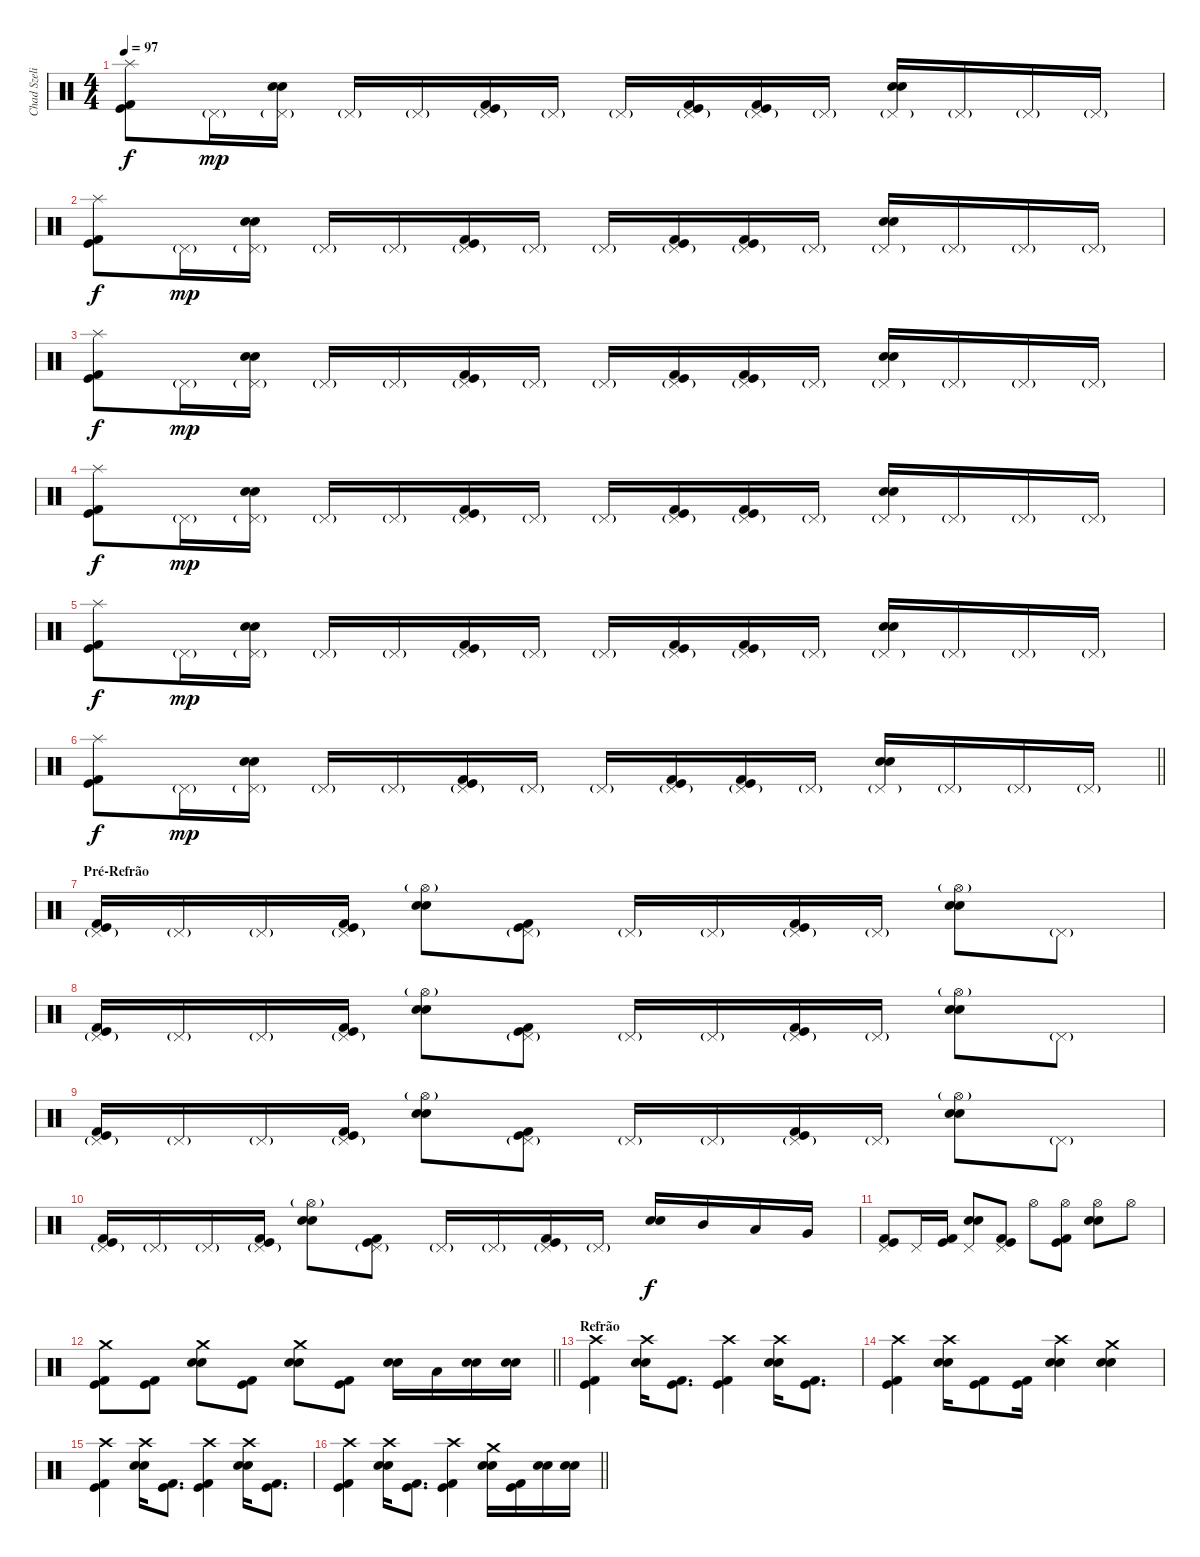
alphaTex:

\track ("Chad Szeliga" "Chad Szeli") {instrument percussion}
\staff {score}
\articulation defaults
\ts (4 4)
\tempo 97
\clef neutral
\ks c
("Splash (hit)" "Kick (hit) 2" "Kick (hit)").8{dy f} "Pedal Hi-Hat (hit)"{g}.16{dy mp} ("Snare (hit) 2" "Snare (hit) 2" "Pedal Hi-Hat (hit)"{g}).16 "Pedal Hi-Hat (hit)"{g}.16 "Pedal Hi-Hat (hit)"{g}.16 ("Kick (hit) 2" "Kick (hit)" "Pedal Hi-Hat (hit)"{g}).16 "Pedal Hi-Hat (hit)"{g}.16 "Pedal Hi-Hat (hit)"{g}.16 ("Kick (hit) 2" "Kick (hit)" "Pedal Hi-Hat (hit)"{g}).16 ("Kick (hit) 2" "Kick (hit)" "Pedal Hi-Hat (hit)"{g}).16 "Pedal Hi-Hat (hit)"{g}.16 ("Snare (hit) 2" "Snare (hit) 2" "Pedal Hi-Hat (hit)"{g}).16 "Pedal Hi-Hat (hit)"{g}.16 "Pedal Hi-Hat (hit)"{g}.16 "Pedal Hi-Hat (hit)"{g}.16 |
("Splash (hit)" "Kick (hit) 2" "Kick (hit)").8{dy f} "Pedal Hi-Hat (hit)"{g}.16{dy mp} ("Snare (hit) 2" "Snare (hit) 2" "Pedal Hi-Hat (hit)"{g}).16 "Pedal Hi-Hat (hit)"{g}.16 "Pedal Hi-Hat (hit)"{g}.16 ("Kick (hit) 2" "Kick (hit)" "Pedal Hi-Hat (hit)"{g}).16 "Pedal Hi-Hat (hit)"{g}.16 "Pedal Hi-Hat (hit)"{g}.16 ("Kick (hit) 2" "Kick (hit)" "Pedal Hi-Hat (hit)"{g}).16 ("Kick (hit) 2" "Kick (hit)" "Pedal Hi-Hat (hit)"{g}).16 "Pedal Hi-Hat (hit)"{g}.16 ("Snare (hit) 2" "Snare (hit) 2" "Pedal Hi-Hat (hit)"{g}).16 "Pedal Hi-Hat (hit)"{g}.16 "Pedal Hi-Hat (hit)"{g}.16 "Pedal Hi-Hat (hit)"{g}.16 |
("Splash (hit)" "Kick (hit) 2" "Kick (hit)").8{dy f} "Pedal Hi-Hat (hit)"{g}.16{dy mp} ("Snare (hit) 2" "Snare (hit) 2" "Pedal Hi-Hat (hit)"{g}).16 "Pedal Hi-Hat (hit)"{g}.16 "Pedal Hi-Hat (hit)"{g}.16 ("Kick (hit) 2" "Kick (hit)" "Pedal Hi-Hat (hit)"{g}).16 "Pedal Hi-Hat (hit)"{g}.16 "Pedal Hi-Hat (hit)"{g}.16 ("Kick (hit) 2" "Kick (hit)" "Pedal Hi-Hat (hit)"{g}).16 ("Kick (hit) 2" "Kick (hit)" "Pedal Hi-Hat (hit)"{g}).16 "Pedal Hi-Hat (hit)"{g}.16 ("Snare (hit) 2" "Snare (hit) 2" "Pedal Hi-Hat (hit)"{g}).16 "Pedal Hi-Hat (hit)"{g}.16 "Pedal Hi-Hat (hit)"{g}.16 "Pedal Hi-Hat (hit)"{g}.16 |
("Splash (hit)" "Kick (hit) 2" "Kick (hit)").8{dy f} "Pedal Hi-Hat (hit)"{g}.16{dy mp} ("Snare (hit) 2" "Snare (hit) 2" "Pedal Hi-Hat (hit)"{g}).16 "Pedal Hi-Hat (hit)"{g}.16 "Pedal Hi-Hat (hit)"{g}.16 ("Kick (hit) 2" "Kick (hit)" "Pedal Hi-Hat (hit)"{g}).16 "Pedal Hi-Hat (hit)"{g}.16 "Pedal Hi-Hat (hit)"{g}.16 ("Kick (hit) 2" "Kick (hit)" "Pedal Hi-Hat (hit)"{g}).16 ("Kick (hit) 2" "Kick (hit)" "Pedal Hi-Hat (hit)"{g}).16 "Pedal Hi-Hat (hit)"{g}.16 ("Snare (hit) 2" "Snare (hit) 2" "Pedal Hi-Hat (hit)"{g}).16 "Pedal Hi-Hat (hit)"{g}.16 "Pedal Hi-Hat (hit)"{g}.16 "Pedal Hi-Hat (hit)"{g}.16 |
("Splash (hit)" "Kick (hit) 2" "Kick (hit)").8{dy f} "Pedal Hi-Hat (hit)"{g}.16{dy mp} ("Snare (hit) 2" "Snare (hit) 2" "Pedal Hi-Hat (hit)"{g}).16 "Pedal Hi-Hat (hit)"{g}.16 "Pedal Hi-Hat (hit)"{g}.16 ("Kick (hit) 2" "Kick (hit)" "Pedal Hi-Hat (hit)"{g}).16 "Pedal Hi-Hat (hit)"{g}.16 "Pedal Hi-Hat (hit)"{g}.16 ("Kick (hit) 2" "Kick (hit)" "Pedal Hi-Hat (hit)"{g}).16 ("Kick (hit) 2" "Kick (hit)" "Pedal Hi-Hat (hit)"{g}).16 "Pedal Hi-Hat (hit)"{g}.16 ("Snare (hit) 2" "Snare (hit) 2" "Pedal Hi-Hat (hit)"{g}).16 "Pedal Hi-Hat (hit)"{g}.16 "Pedal Hi-Hat (hit)"{g}.16 "Pedal Hi-Hat (hit)"{g}.16 |
\barLineRight lightlight
("Splash (hit)" "Kick (hit) 2" "Kick (hit)").8{dy f} "Pedal Hi-Hat (hit)"{g}.16{dy mp} ("Snare (hit) 2" "Snare (hit) 2" "Pedal Hi-Hat (hit)"{g}).16 "Pedal Hi-Hat (hit)"{g}.16 "Pedal Hi-Hat (hit)"{g}.16 ("Kick (hit) 2" "Kick (hit)" "Pedal Hi-Hat (hit)"{g}).16 "Pedal Hi-Hat (hit)"{g}.16 "Pedal Hi-Hat (hit)"{g}.16 ("Kick (hit) 2" "Kick (hit)" "Pedal Hi-Hat (hit)"{g}).16 ("Kick (hit) 2" "Kick (hit)" "Pedal Hi-Hat (hit)"{g}).16 "Pedal Hi-Hat (hit)"{g}.16 ("Snare (hit) 2" "Snare (hit) 2" "Pedal Hi-Hat (hit)"{g}).16 "Pedal Hi-Hat (hit)"{g}.16 "Pedal Hi-Hat (hit)"{g}.16 "Pedal Hi-Hat (hit)"{g}.16 |
\section ("" "Pré-Refrão")
("Kick (hit) 2" "Kick (hit)" "Pedal Hi-Hat (hit)"{g}).16 "Pedal Hi-Hat (hit)"{g}.16 "Pedal Hi-Hat (hit)"{g}.16 ("Kick (hit) 2" "Kick (hit)" "Pedal Hi-Hat (hit)"{g}).16 ("Snare (hit) 2" "Snare (hit) 2" "Hi-Hat (open)"{g}).8 ("Kick (hit) 2" "Kick (hit)" "Pedal Hi-Hat (hit)"{g}).8 "Pedal Hi-Hat (hit)"{g}.16 "Pedal Hi-Hat (hit)"{g}.16 ("Kick (hit) 2" "Kick (hit)" "Pedal Hi-Hat (hit)"{g}).16 "Pedal Hi-Hat (hit)"{g}.16 ("Snare (hit) 2" "Snare (hit) 2" "Hi-Hat (open)"{g}).8 "Pedal Hi-Hat (hit)"{g}.8 |
("Kick (hit) 2" "Kick (hit)" "Pedal Hi-Hat (hit)"{g}).16 "Pedal Hi-Hat (hit)"{g}.16 "Pedal Hi-Hat (hit)"{g}.16 ("Kick (hit) 2" "Kick (hit)" "Pedal Hi-Hat (hit)"{g}).16 ("Snare (hit) 2" "Snare (hit) 2" "Hi-Hat (open)"{g}).8 ("Kick (hit) 2" "Kick (hit)" "Pedal Hi-Hat (hit)"{g}).8 "Pedal Hi-Hat (hit)"{g}.16 "Pedal Hi-Hat (hit)"{g}.16 ("Kick (hit) 2" "Kick (hit)" "Pedal Hi-Hat (hit)"{g}).16 "Pedal Hi-Hat (hit)"{g}.16 ("Snare (hit) 2" "Snare (hit) 2" "Hi-Hat (open)"{g}).8 "Pedal Hi-Hat (hit)"{g}.8 |
("Kick (hit) 2" "Kick (hit)" "Pedal Hi-Hat (hit)"{g}).16 "Pedal Hi-Hat (hit)"{g}.16 "Pedal Hi-Hat (hit)"{g}.16 ("Kick (hit) 2" "Kick (hit)" "Pedal Hi-Hat (hit)"{g}).16 ("Snare (hit) 2" "Snare (hit) 2" "Hi-Hat (open)"{g}).8 ("Kick (hit) 2" "Kick (hit)" "Pedal Hi-Hat (hit)"{g}).8 "Pedal Hi-Hat (hit)"{g}.16 "Pedal Hi-Hat (hit)"{g}.16 ("Kick (hit) 2" "Kick (hit)" "Pedal Hi-Hat (hit)"{g}).16 "Pedal Hi-Hat (hit)"{g}.16 ("Snare (hit) 2" "Snare (hit) 2" "Hi-Hat (open)"{g}).8 "Pedal Hi-Hat (hit)"{g}.8 |
("Kick (hit) 2" "Kick (hit)" "Pedal Hi-Hat (hit)"{g}).16 "Pedal Hi-Hat (hit)"{g}.16 "Pedal Hi-Hat (hit)"{g}.16 ("Kick (hit) 2" "Kick (hit)" "Pedal Hi-Hat (hit)"{g}).16 ("Snare (hit) 2" "Snare (hit) 2" "Hi-Hat (open)"{g}).8 ("Kick (hit) 2" "Kick (hit)" "Pedal Hi-Hat (hit)"{g}).8 "Pedal Hi-Hat (hit)"{g}.16 "Pedal Hi-Hat (hit)"{g}.16 ("Kick (hit) 2" "Kick (hit)" "Pedal Hi-Hat (hit)"{g}).16 "Pedal Hi-Hat (hit)"{g}.16 ("Snare (hit) 2" "Snare (hit) 2").16{dy f} "Mid Tom (hit)".16 "Low Tom (hit)".16 "Very Low Tom (hit)".16 |
("Kick (hit) 2" "Kick (hit)" "Pedal Hi-Hat (hit)").8 "Pedal Hi-Hat (hit)".16 ("Kick (hit) 2" "Kick (hit)").16 ("Snare (hit) 2" "Snare (hit) 2" "Pedal Hi-Hat (hit)").8 ("Kick (hit) 2" "Kick (hit)" "Pedal Hi-Hat (hit)").8 "Hi-Hat (open)".8 ("Kick (hit) 2" "Kick (hit)" "Hi-Hat (open)").8 ("Snare (hit) 2" "Snare (hit) 2" "Hi-Hat (open)").8 "Hi-Hat (open)".8 |
\barLineRight lightlight
("Crash medium (hit)" "Kick (hit) 2" "Kick (hit)").8 ("Kick (hit) 2" "Kick (hit)").8 ("Crash medium (hit)" "Snare (hit) 2" "Snare (hit) 2").8 ("Kick (hit) 2" "Kick (hit)").8 ("Crash medium (hit)" "Snare (hit) 2" "Snare (hit) 2").8 ("Kick (hit) 2" "Kick (hit)").8 ("Snare (hit) 2" "Snare (hit) 2").16 "Low Tom (hit)".16 ("Snare (hit) 2" "Snare (hit) 2").16 ("Snare (hit) 2" "Snare (hit) 2").16 |
\section ("" "Refrão")
("Crash high (hit)" "Kick (hit) 2" "Kick (hit)").4 ("Crash high (hit)" "Snare (hit) 2" "Snare (hit) 2").16 ("Kick (hit) 2" "Kick (hit)").8{d} ("Crash high (hit)" "Kick (hit) 2" "Kick (hit)").4 ("Crash high (hit)" "Snare (hit) 2" "Snare (hit) 2").16 ("Kick (hit) 2" "Kick (hit)").8{d} |
("Crash high (hit)" "Kick (hit) 2" "Kick (hit)").4 ("Crash high (hit)" "Snare (hit) 2" "Snare (hit) 2").16 ("Kick (hit) 2" "Kick (hit)").8 ("Kick (hit) 2" "Kick (hit)").16 ("Crash high (hit)" "Snare (hit) 2" "Snare (hit) 2").4 ("Crash medium (hit)" "Snare (hit) 2" "Snare (hit) 2").4 |
("Crash high (hit)" "Kick (hit) 2" "Kick (hit)").4 ("Crash high (hit)" "Snare (hit) 2" "Snare (hit) 2").16 ("Kick (hit) 2" "Kick (hit)").8{d} ("Crash high (hit)" "Kick (hit) 2" "Kick (hit)").4 ("Crash high (hit)" "Snare (hit) 2" "Snare (hit) 2").16 ("Kick (hit) 2" "Kick (hit)").8{d} |
\barLineRight lightlight
("Crash high (hit)" "Kick (hit) 2" "Kick (hit)").4 ("Crash high (hit)" "Snare (hit) 2" "Snare (hit) 2").16 ("Kick (hit) 2" "Kick (hit)").8{d} ("Crash high (hit)" "Kick (hit) 2" "Kick (hit)").4 ("Crash medium (hit)" "Snare (hit) 2" "Snare (hit) 2").16 ("Kick (hit) 2" "Kick (hit)").16 ("Snare (hit) 2" "Snare (hit) 2").16 ("Snare (hit) 2" "Snare (hit) 2").16
